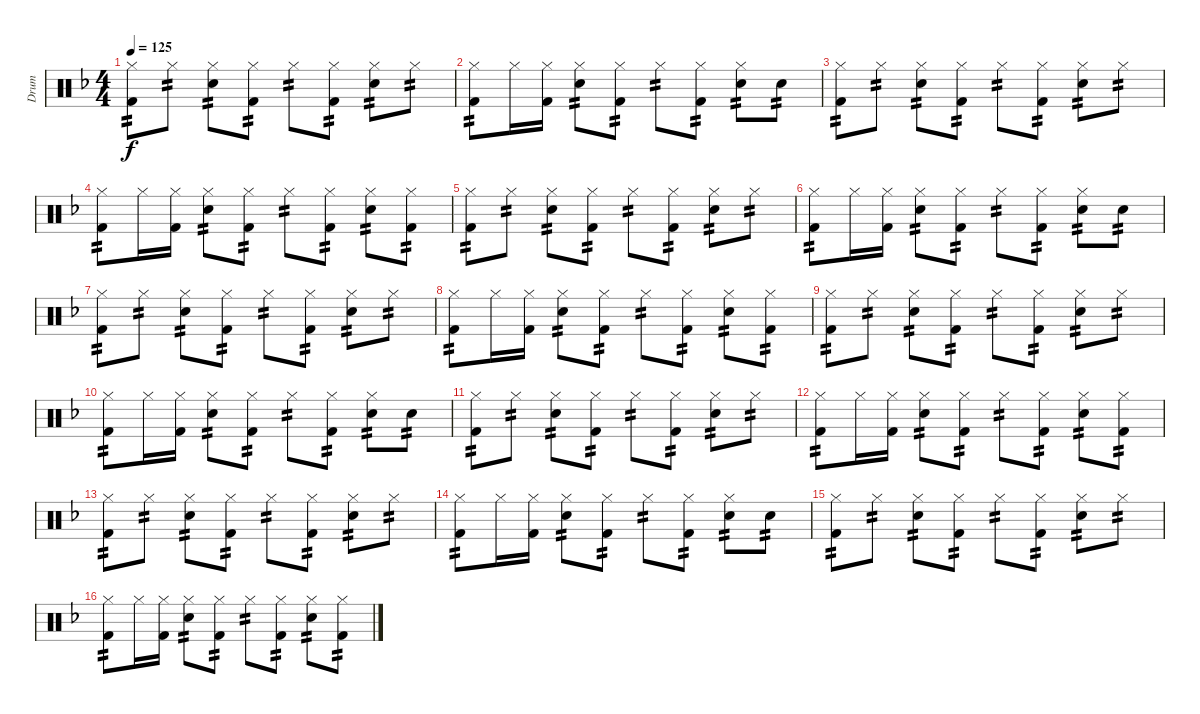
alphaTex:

\track ("Drum" "Drum") {instrument percussion}
\staff {score}
\articulation defaults
\ts (4 4)
\tempo 125
\clef neutral
\ks f
("Hi-Hat (closed)" "Kick (hit) 2").8{tp 2 dy f} "Hi-Hat (closed)".8{tp 2} ("Hi-Hat (closed)" "Electric Snare (hit)").8{tp 2} ("Hi-Hat (closed)" "Kick (hit) 2").8{tp 2} "Hi-Hat (closed)".8{tp 2} ("Hi-Hat (closed)" "Kick (hit) 2").8{tp 2} ("Hi-Hat (closed)" "Electric Snare (hit)").8{tp 2} "Hi-Hat (closed)".8{tp 2} |
("Hi-Hat (closed)" "Kick (hit) 2").8{tp 2} "Hi-Hat (closed)".16 ("Hi-Hat (closed)" "Kick (hit) 2").16 ("Hi-Hat (closed)" "Electric Snare (hit)").8{tp 2} ("Hi-Hat (closed)" "Kick (hit) 2").8{tp 2} "Hi-Hat (closed)".8{tp 2} ("Hi-Hat (closed)" "Kick (hit) 2").8{tp 2} ("Hi-Hat (closed)" "Electric Snare (hit)").8{tp 2} "Electric Snare (hit)".8{tp 2} |
("Hi-Hat (closed)" "Kick (hit) 2").8{tp 2} "Hi-Hat (closed)".8{tp 2} ("Hi-Hat (closed)" "Electric Snare (hit)").8{tp 2} ("Hi-Hat (closed)" "Kick (hit) 2").8{tp 2} "Hi-Hat (closed)".8{tp 2} ("Hi-Hat (closed)" "Kick (hit) 2").8{tp 2} ("Hi-Hat (closed)" "Electric Snare (hit)").8{tp 2} "Hi-Hat (closed)".8{tp 2} |
("Hi-Hat (closed)" "Kick (hit) 2").8{tp 2} "Hi-Hat (closed)".16 ("Hi-Hat (closed)" "Kick (hit) 2").16 ("Hi-Hat (closed)" "Electric Snare (hit)").8{tp 2} ("Hi-Hat (closed)" "Kick (hit) 2").8{tp 2} "Hi-Hat (closed)".8{tp 2} ("Hi-Hat (closed)" "Kick (hit) 2").8{tp 2} ("Hi-Hat (closed)" "Electric Snare (hit)").8{tp 2} ("Hi-Hat (closed)" "Kick (hit) 2").8{tp 2} |
("Hi-Hat (closed)" "Kick (hit) 2").8{tp 2} "Hi-Hat (closed)".8{tp 2} ("Hi-Hat (closed)" "Electric Snare (hit)").8{tp 2} ("Hi-Hat (closed)" "Kick (hit) 2").8{tp 2} "Hi-Hat (closed)".8{tp 2} ("Hi-Hat (closed)" "Kick (hit) 2").8{tp 2} ("Hi-Hat (closed)" "Electric Snare (hit)").8{tp 2} "Hi-Hat (closed)".8{tp 2} |
("Hi-Hat (closed)" "Kick (hit) 2").8{tp 2} "Hi-Hat (closed)".16 ("Hi-Hat (closed)" "Kick (hit) 2").16 ("Hi-Hat (closed)" "Electric Snare (hit)").8{tp 2} ("Hi-Hat (closed)" "Kick (hit) 2").8{tp 2} "Hi-Hat (closed)".8{tp 2} ("Hi-Hat (closed)" "Kick (hit) 2").8{tp 2} ("Hi-Hat (closed)" "Electric Snare (hit)").8{tp 2} "Electric Snare (hit)".8{tp 2} |
("Hi-Hat (closed)" "Kick (hit) 2").8{tp 2} "Hi-Hat (closed)".8{tp 2} ("Hi-Hat (closed)" "Electric Snare (hit)").8{tp 2} ("Hi-Hat (closed)" "Kick (hit) 2").8{tp 2} "Hi-Hat (closed)".8{tp 2} ("Hi-Hat (closed)" "Kick (hit) 2").8{tp 2} ("Hi-Hat (closed)" "Electric Snare (hit)").8{tp 2} "Hi-Hat (closed)".8{tp 2} |
("Hi-Hat (closed)" "Kick (hit) 2").8{tp 2} "Hi-Hat (closed)".16 ("Hi-Hat (closed)" "Kick (hit) 2").16 ("Hi-Hat (closed)" "Electric Snare (hit)").8{tp 2} ("Hi-Hat (closed)" "Kick (hit) 2").8{tp 2} "Hi-Hat (closed)".8{tp 2} ("Hi-Hat (closed)" "Kick (hit) 2").8{tp 2} ("Hi-Hat (closed)" "Electric Snare (hit)").8{tp 2} ("Hi-Hat (closed)" "Kick (hit) 2").8{tp 2} |
("Hi-Hat (closed)" "Kick (hit) 2").8{tp 2} "Hi-Hat (closed)".8{tp 2} ("Hi-Hat (closed)" "Electric Snare (hit)").8{tp 2} ("Hi-Hat (closed)" "Kick (hit) 2").8{tp 2} "Hi-Hat (closed)".8{tp 2} ("Hi-Hat (closed)" "Kick (hit) 2").8{tp 2} ("Hi-Hat (closed)" "Electric Snare (hit)").8{tp 2} "Hi-Hat (closed)".8{tp 2} |
("Hi-Hat (closed)" "Kick (hit) 2").8{tp 2} "Hi-Hat (closed)".16 ("Hi-Hat (closed)" "Kick (hit) 2").16 ("Hi-Hat (closed)" "Electric Snare (hit)").8{tp 2} ("Hi-Hat (closed)" "Kick (hit) 2").8{tp 2} "Hi-Hat (closed)".8{tp 2} ("Hi-Hat (closed)" "Kick (hit) 2").8{tp 2} ("Hi-Hat (closed)" "Electric Snare (hit)").8{tp 2} "Electric Snare (hit)".8{tp 2} |
("Hi-Hat (closed)" "Kick (hit) 2").8{tp 2} "Hi-Hat (closed)".8{tp 2} ("Hi-Hat (closed)" "Electric Snare (hit)").8{tp 2} ("Hi-Hat (closed)" "Kick (hit) 2").8{tp 2} "Hi-Hat (closed)".8{tp 2} ("Hi-Hat (closed)" "Kick (hit) 2").8{tp 2} ("Hi-Hat (closed)" "Electric Snare (hit)").8{tp 2} "Hi-Hat (closed)".8{tp 2} |
("Hi-Hat (closed)" "Kick (hit) 2").8{tp 2} "Hi-Hat (closed)".16 ("Hi-Hat (closed)" "Kick (hit) 2").16 ("Hi-Hat (closed)" "Electric Snare (hit)").8{tp 2} ("Hi-Hat (closed)" "Kick (hit) 2").8{tp 2} "Hi-Hat (closed)".8{tp 2} ("Hi-Hat (closed)" "Kick (hit) 2").8{tp 2} ("Hi-Hat (closed)" "Electric Snare (hit)").8{tp 2} ("Hi-Hat (closed)" "Kick (hit) 2").8{tp 2} |
("Hi-Hat (closed)" "Kick (hit) 2").8{tp 2} "Hi-Hat (closed)".8{tp 2} ("Hi-Hat (closed)" "Electric Snare (hit)").8{tp 2} ("Hi-Hat (closed)" "Kick (hit) 2").8{tp 2} "Hi-Hat (closed)".8{tp 2} ("Hi-Hat (closed)" "Kick (hit) 2").8{tp 2} ("Hi-Hat (closed)" "Electric Snare (hit)").8{tp 2} "Hi-Hat (closed)".8{tp 2} |
("Hi-Hat (closed)" "Kick (hit) 2").8{tp 2} "Hi-Hat (closed)".16 ("Hi-Hat (closed)" "Kick (hit) 2").16 ("Hi-Hat (closed)" "Electric Snare (hit)").8{tp 2} ("Hi-Hat (closed)" "Kick (hit) 2").8{tp 2} "Hi-Hat (closed)".8{tp 2} ("Hi-Hat (closed)" "Kick (hit) 2").8{tp 2} ("Hi-Hat (closed)" "Electric Snare (hit)").8{tp 2} "Electric Snare (hit)".8{tp 2} |
("Hi-Hat (closed)" "Kick (hit) 2").8{tp 2} "Hi-Hat (closed)".8{tp 2} ("Hi-Hat (closed)" "Electric Snare (hit)").8{tp 2} ("Hi-Hat (closed)" "Kick (hit) 2").8{tp 2} "Hi-Hat (closed)".8{tp 2} ("Hi-Hat (closed)" "Kick (hit) 2").8{tp 2} ("Hi-Hat (closed)" "Electric Snare (hit)").8{tp 2} "Hi-Hat (closed)".8{tp 2} |
("Hi-Hat (closed)" "Kick (hit) 2").8{tp 2} "Hi-Hat (closed)".16 ("Hi-Hat (closed)" "Kick (hit) 2").16 ("Hi-Hat (closed)" "Electric Snare (hit)").8{tp 2} ("Hi-Hat (closed)" "Kick (hit) 2").8{tp 2} "Hi-Hat (closed)".8{tp 2} ("Hi-Hat (closed)" "Kick (hit) 2").8{tp 2} ("Hi-Hat (closed)" "Electric Snare (hit)").8{tp 2} ("Hi-Hat (closed)" "Kick (hit) 2").8{tp 2}
